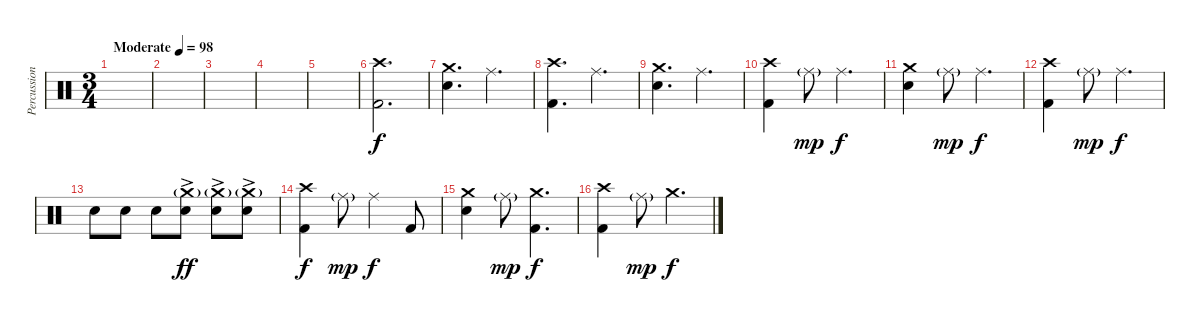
\track ("Percussion" "Percussion") {instrument percussion}
\staff {score}
\articulation defaults
\ts (3 4)
\tempo (98 "Moderate")
\clef neutral
\ks c
|
|
|
|
|
("Crash high (hit)" "Kick (hit) 2").2{d} |
("Crash medium (hit)" "Electric Snare (hit)").4{d} "Ride (middle)".4{d} |
("Crash high (hit)" "Kick (hit) 2").4{d} "Ride (middle)".4{d} |
("Crash medium (hit)" "Electric Snare (hit)").4{d} "Ride (middle)".4{d} |
("Crash high (hit)" "Kick (hit) 2").4 "Ride (middle)"{g}.8{dy mp} "Ride (middle)".4{d dy f} |
("Crash medium (hit)" "Electric Snare (hit)").4 "Ride (middle)"{g}.8{dy mp} "Ride (middle)".4{d dy f} |
("Crash high (hit)" "Kick (hit) 2").4 "Ride (middle)"{g}.8{dy mp} "Ride (middle)".4{d dy f} |
"Electric Snare (hit)".8 "Electric Snare (hit)".8 "Electric Snare (hit)".8 ("Crash medium (hit)"{g} "Electric Snare (hit)"{ac}).8{dy ff} ("Crash medium (hit)"{g} "Electric Snare (hit)"{ac}).8 ("Crash medium (hit)"{g} "Electric Snare (hit)"{ac}).8 |
("Crash high (hit)" "Kick (hit) 2").4{dy f} "Ride (middle)"{g}.8{dy mp} "Ride (middle)".4{dy f} "Kick (hit) 2".8 |
("Crash medium (hit)" "Electric Snare (hit)").4 "Ride (middle)"{g}.8{dy mp} ("Crash medium (hit)" "Kick (hit) 2").4{d dy f} |
("Crash high (hit)" "Kick (hit) 2").4 "Ride (middle)"{g}.8{dy mp} "Crash medium (hit)".4{d dy f}
